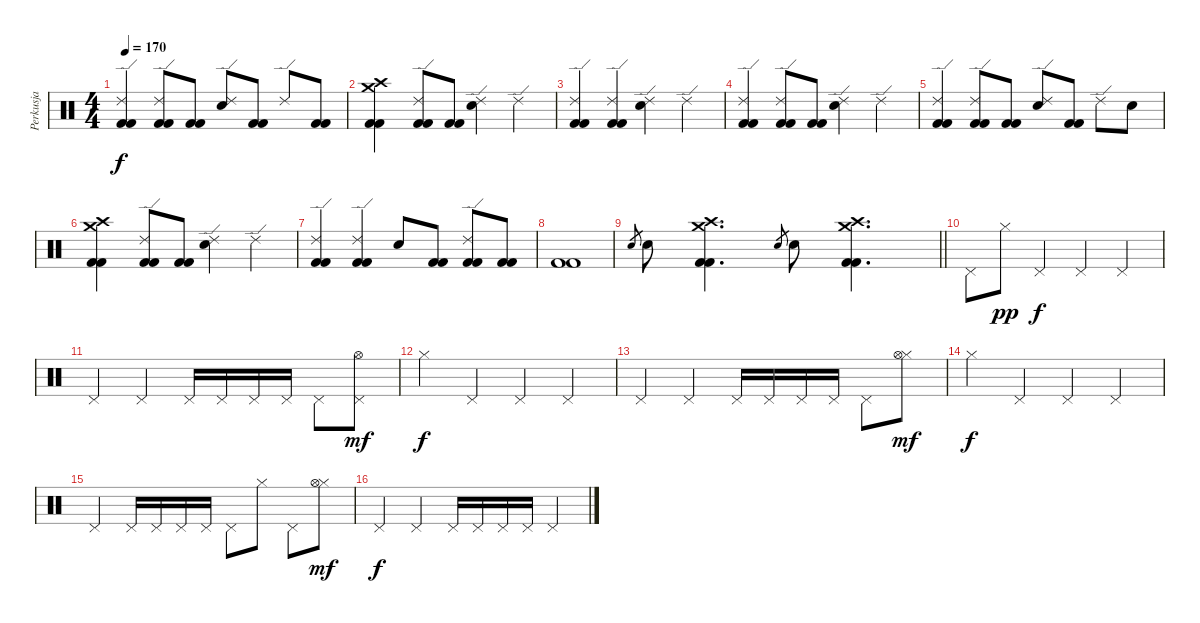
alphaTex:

\track ("Perkusja" "Perkusja") {instrument percussion}
\staff {score}
\articulation defaults
\ts (4 4)
\tempo 170
\clef neutral
\ks c
("Ride (edge) 2" "Kick (hit) 2" "Kick (hit) 2").4{dy f} ("Ride (edge) 2" "Kick (hit) 2" "Kick (hit) 2").8 ("Kick (hit) 2" "Kick (hit) 2").8 ("Ride (edge) 2" "Electric Snare (hit)").8 ("Kick (hit) 2" "Kick (hit) 2").8 "Ride (edge) 2".8 ("Kick (hit) 2" "Kick (hit) 2").8 |
("Crash high (hit)" "Crash medium (hit)" "Kick (hit) 2" "Kick (hit) 2").4 ("Ride (edge) 2" "Kick (hit) 2" "Kick (hit) 2").8 ("Kick (hit) 2" "Kick (hit) 2").8 ("Ride (edge) 2" "Electric Snare (hit)").4 "Ride (edge) 2".4 |
("Ride (edge) 2" "Kick (hit) 2" "Kick (hit) 2").4 ("Ride (edge) 2" "Kick (hit) 2" "Kick (hit) 2").4 ("Ride (edge) 2" "Electric Snare (hit)").4 "Ride (edge) 2".4 |
("Ride (edge) 2" "Kick (hit) 2" "Kick (hit) 2").4 ("Ride (edge) 2" "Kick (hit) 2" "Kick (hit) 2").8 ("Kick (hit) 2" "Kick (hit) 2").8 ("Ride (edge) 2" "Electric Snare (hit)").4 "Ride (edge) 2".4 |
("Ride (edge) 2" "Kick (hit) 2" "Kick (hit) 2").4 ("Ride (edge) 2" "Kick (hit) 2" "Kick (hit) 2").8 ("Kick (hit) 2" "Kick (hit) 2").8 ("Ride (edge) 2" "Electric Snare (hit)").8 ("Kick (hit) 2" "Kick (hit) 2").8 "Ride (edge) 2".8 "Electric Snare (hit)".8 |
("Crash high (hit)" "Crash medium (hit)" "Kick (hit) 2" "Kick (hit) 2").4 ("Ride (edge) 2" "Kick (hit) 2" "Kick (hit) 2").8 ("Kick (hit) 2" "Kick (hit) 2").8 ("Ride (edge) 2" "Electric Snare (hit)").4 "Ride (edge) 2".4 |
("Ride (edge) 2" "Kick (hit) 2" "Kick (hit) 2").4 ("Ride (edge) 2" "Kick (hit) 2" "Kick (hit) 2").4 "Electric Snare (hit)".8 ("Kick (hit) 2" "Kick (hit) 2").8 ("Ride (edge) 2" "Kick (hit) 2" "Kick (hit) 2").8 ("Kick (hit) 2" "Kick (hit) 2").8 |
("Kick (hit) 2" "Kick (hit) 2").1 |
\barLineRight lightlight "Electric Snare (hit)".8{gr} "Electric Snare (hit)".8
("Crash medium (hit)" "Crash high (hit)" "Kick (hit) 2" "Kick (hit) 2").4{d} "Electric Snare (hit)".8{gr} "Electric Snare (hit)".8 ("Crash medium (hit)" "Crash high (hit)" "Kick (hit) 2" "Kick (hit) 2").4{d} |
"Pedal Hi-Hat (hit)".8 "Hi-Hat (closed)".8{dy pp} "Pedal Hi-Hat (hit)".4{dy f} "Pedal Hi-Hat (hit)".4 "Pedal Hi-Hat (hit)".4 |
"Pedal Hi-Hat (hit)".4 "Pedal Hi-Hat (hit)".4 "Pedal Hi-Hat (hit)".16 "Pedal Hi-Hat (hit)".16 "Pedal Hi-Hat (hit)".16 "Pedal Hi-Hat (hit)".16 "Pedal Hi-Hat (hit)".8 ("Pedal Hi-Hat (hit)" "Hi-Hat (open)").8{dy mf} |
"Hi-Hat (closed)".4{dy f} "Pedal Hi-Hat (hit)".4 "Pedal Hi-Hat (hit)".4 "Pedal Hi-Hat (hit)".4 |
"Pedal Hi-Hat (hit)".4 "Pedal Hi-Hat (hit)".4 "Pedal Hi-Hat (hit)".16 "Pedal Hi-Hat (hit)".16 "Pedal Hi-Hat (hit)".16 "Pedal Hi-Hat (hit)".16 "Pedal Hi-Hat (hit)".8 ("Hi-Hat (closed)" "Hi-Hat (open)").8{dy mf} |
"Hi-Hat (closed)".4{dy f} "Pedal Hi-Hat (hit)".4 "Pedal Hi-Hat (hit)".4 "Pedal Hi-Hat (hit)".4 |
"Pedal Hi-Hat (hit)".4 "Pedal Hi-Hat (hit)".16 "Pedal Hi-Hat (hit)".16 "Pedal Hi-Hat (hit)".16 "Pedal Hi-Hat (hit)".16 "Pedal Hi-Hat (hit)".8 "Hi-Hat (closed)".8 "Pedal Hi-Hat (hit)".8 ("Hi-Hat (closed)" "Hi-Hat (open)").8{dy mf} |
"Pedal Hi-Hat (hit)".4{dy f} "Pedal Hi-Hat (hit)".4 "Pedal Hi-Hat (hit)".16 "Pedal Hi-Hat (hit)".16 "Pedal Hi-Hat (hit)".16 "Pedal Hi-Hat (hit)".16 "Pedal Hi-Hat (hit)".4
